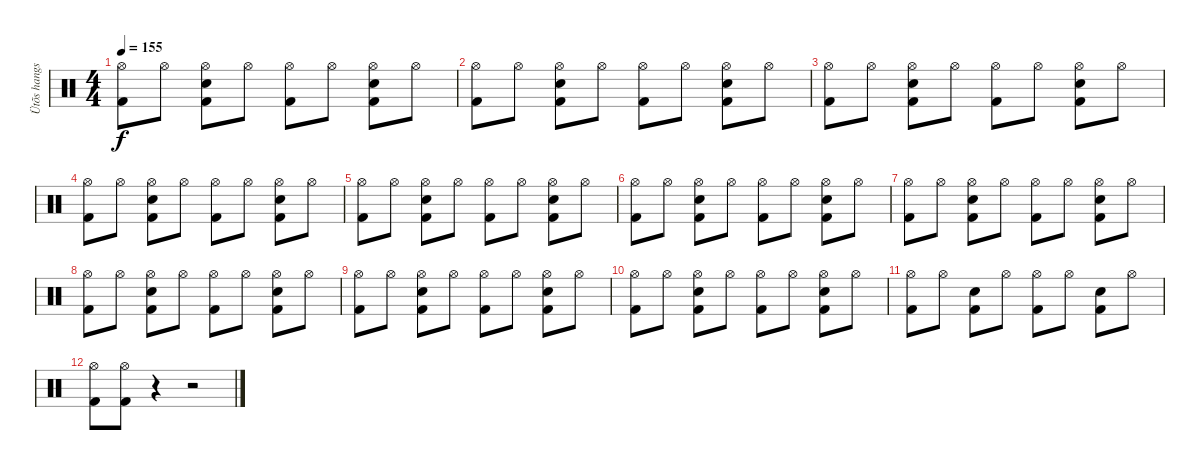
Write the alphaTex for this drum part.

\track ("Ütõs hangszer" "Ütõs hangs") {instrument percussion}
\staff {score}
\articulation defaults
\ts (4 4)
\tempo 155
\clef neutral
\ks c
("Hi-Hat (open)" "Kick (hit) 2").8{dy f} "Hi-Hat (open)".8 ("Hi-Hat (open)" "Electric Snare (hit)" "Kick (hit) 2").8 "Hi-Hat (open)".8 ("Hi-Hat (open)" "Kick (hit) 2").8 "Hi-Hat (open)".8 ("Hi-Hat (open)" "Electric Snare (hit)" "Kick (hit) 2").8 "Hi-Hat (open)".8 |
("Hi-Hat (open)" "Kick (hit) 2").8 "Hi-Hat (open)".8 ("Hi-Hat (open)" "Electric Snare (hit)" "Kick (hit) 2").8 "Hi-Hat (open)".8 ("Hi-Hat (open)" "Kick (hit) 2").8 "Hi-Hat (open)".8 ("Hi-Hat (open)" "Electric Snare (hit)" "Kick (hit) 2").8 "Hi-Hat (open)".8 |
("Hi-Hat (open)" "Kick (hit) 2").8 "Hi-Hat (open)".8 ("Hi-Hat (open)" "Electric Snare (hit)" "Kick (hit) 2").8 "Hi-Hat (open)".8 ("Hi-Hat (open)" "Kick (hit) 2").8 "Hi-Hat (open)".8 ("Hi-Hat (open)" "Electric Snare (hit)" "Kick (hit) 2").8 "Hi-Hat (open)".8 |
("Hi-Hat (open)" "Kick (hit) 2").8 "Hi-Hat (open)".8 ("Hi-Hat (open)" "Electric Snare (hit)" "Kick (hit) 2").8 "Hi-Hat (open)".8 ("Hi-Hat (open)" "Kick (hit) 2").8 "Hi-Hat (open)".8 ("Hi-Hat (open)" "Electric Snare (hit)" "Kick (hit) 2").8 "Hi-Hat (open)".8 |
("Hi-Hat (open)" "Kick (hit) 2").8 "Hi-Hat (open)".8 ("Hi-Hat (open)" "Electric Snare (hit)" "Kick (hit) 2").8 "Hi-Hat (open)".8 ("Hi-Hat (open)" "Kick (hit) 2").8 "Hi-Hat (open)".8 ("Hi-Hat (open)" "Electric Snare (hit)" "Kick (hit) 2").8 "Hi-Hat (open)".8 |
("Hi-Hat (open)" "Kick (hit) 2").8 "Hi-Hat (open)".8 ("Hi-Hat (open)" "Electric Snare (hit)" "Kick (hit) 2").8 "Hi-Hat (open)".8 ("Hi-Hat (open)" "Kick (hit) 2").8 "Hi-Hat (open)".8 ("Hi-Hat (open)" "Electric Snare (hit)" "Kick (hit) 2").8 "Hi-Hat (open)".8 |
("Hi-Hat (open)" "Kick (hit) 2").8 "Hi-Hat (open)".8 ("Hi-Hat (open)" "Electric Snare (hit)" "Kick (hit) 2").8 "Hi-Hat (open)".8 ("Hi-Hat (open)" "Kick (hit) 2").8 "Hi-Hat (open)".8 ("Hi-Hat (open)" "Electric Snare (hit)" "Kick (hit) 2").8 "Hi-Hat (open)".8 |
("Hi-Hat (open)" "Kick (hit) 2").8 "Hi-Hat (open)".8 ("Hi-Hat (open)" "Electric Snare (hit)" "Kick (hit) 2").8 "Hi-Hat (open)".8 ("Hi-Hat (open)" "Kick (hit) 2").8 "Hi-Hat (open)".8 ("Hi-Hat (open)" "Electric Snare (hit)" "Kick (hit) 2").8 "Hi-Hat (open)".8 |
("Hi-Hat (open)" "Kick (hit) 2").8 "Hi-Hat (open)".8 ("Hi-Hat (open)" "Electric Snare (hit)" "Kick (hit) 2").8 "Hi-Hat (open)".8 ("Hi-Hat (open)" "Kick (hit) 2").8 "Hi-Hat (open)".8 ("Hi-Hat (open)" "Electric Snare (hit)" "Kick (hit) 2").8 "Hi-Hat (open)".8 |
("Hi-Hat (open)" "Kick (hit) 2").8 "Hi-Hat (open)".8 ("Hi-Hat (open)" "Electric Snare (hit)" "Kick (hit) 2").8 "Hi-Hat (open)".8 ("Hi-Hat (open)" "Kick (hit) 2").8 "Hi-Hat (open)".8 ("Hi-Hat (open)" "Electric Snare (hit)" "Kick (hit) 2").8 "Hi-Hat (open)".8 |
("Hi-Hat (open)" "Kick (hit) 2").8 "Hi-Hat (open)".8 ("Electric Snare (hit)" "Kick (hit) 2").8 "Hi-Hat (open)".8 ("Hi-Hat (open)" "Kick (hit) 2").8 "Hi-Hat (open)".8 ("Electric Snare (hit)" "Kick (hit) 2").8 "Hi-Hat (open)".8 |
("Hi-Hat (open)" "Kick (hit) 2").8 ("Hi-Hat (open)" "Kick (hit) 2").8 r.4 r.2
